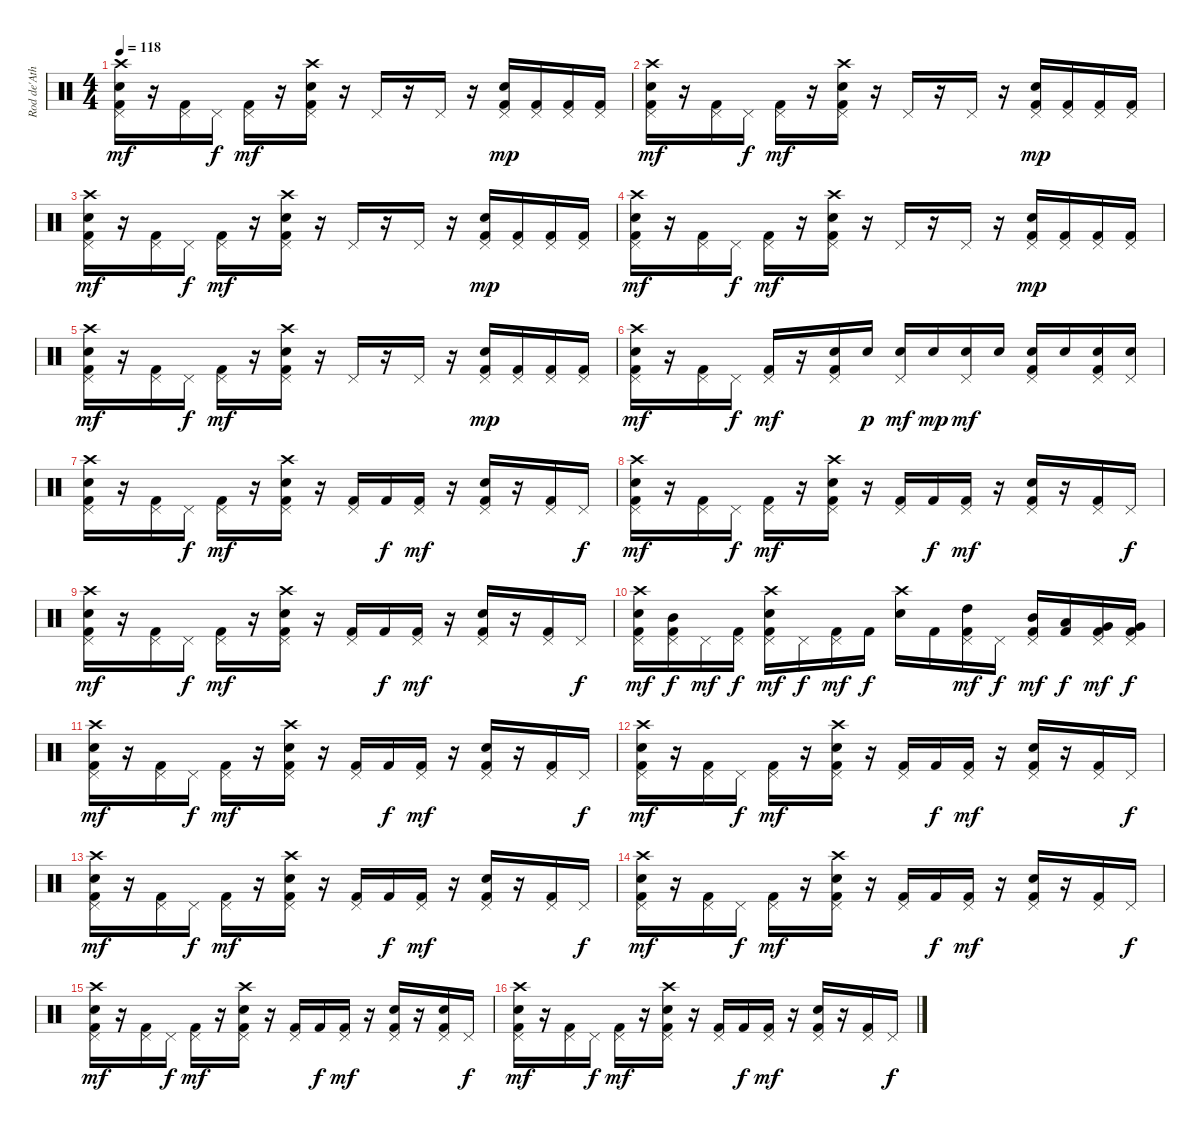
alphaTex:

\track ("Rod de'Ath" "Rod de'Ath") {instrument percussion}
\staff {score}
\articulation defaults
\ts (4 4)
\tempo 118
\clef neutral
\ks c
("Crash high (hit)" "Snare (hit) 2" "Pedal Hi-Hat (hit)" "Kick (hit) 2").16{dy mf} r.16 ("Pedal Hi-Hat (hit)" "Kick (hit) 2").16 "Pedal Hi-Hat (hit)".16{dy f} ("Pedal Hi-Hat (hit)" "Kick (hit) 2").16{dy mf} r.16 ("Crash high (hit)" "Snare (hit) 2" "Pedal Hi-Hat (hit)" "Kick (hit) 2").16 r.16 "Pedal Hi-Hat (hit)".16 r.16 "Pedal Hi-Hat (hit)".16 r.16 ("Snare (hit) 2" "Pedal Hi-Hat (hit)" "Kick (hit) 2").16{dy mp} ("Pedal Hi-Hat (hit)" "Kick (hit) 2").16 ("Pedal Hi-Hat (hit)" "Kick (hit) 2").16 ("Pedal Hi-Hat (hit)" "Kick (hit) 2").16 |
("Crash high (hit)" "Snare (hit) 2" "Pedal Hi-Hat (hit)" "Kick (hit) 2").16{dy mf} r.16 ("Pedal Hi-Hat (hit)" "Kick (hit) 2").16 "Pedal Hi-Hat (hit)".16{dy f} ("Pedal Hi-Hat (hit)" "Kick (hit) 2").16{dy mf} r.16 ("Crash high (hit)" "Snare (hit) 2" "Pedal Hi-Hat (hit)" "Kick (hit) 2").16 r.16 "Pedal Hi-Hat (hit)".16 r.16 "Pedal Hi-Hat (hit)".16 r.16 ("Snare (hit) 2" "Pedal Hi-Hat (hit)" "Kick (hit) 2").16{dy mp} ("Pedal Hi-Hat (hit)" "Kick (hit) 2").16 ("Pedal Hi-Hat (hit)" "Kick (hit) 2").16 ("Pedal Hi-Hat (hit)" "Kick (hit) 2").16 |
("Crash high (hit)" "Snare (hit) 2" "Pedal Hi-Hat (hit)" "Kick (hit) 2").16{dy mf} r.16 ("Pedal Hi-Hat (hit)" "Kick (hit) 2").16 "Pedal Hi-Hat (hit)".16{dy f} ("Pedal Hi-Hat (hit)" "Kick (hit) 2").16{dy mf} r.16 ("Crash high (hit)" "Snare (hit) 2" "Pedal Hi-Hat (hit)" "Kick (hit) 2").16 r.16 "Pedal Hi-Hat (hit)".16 r.16 "Pedal Hi-Hat (hit)".16 r.16 ("Snare (hit) 2" "Pedal Hi-Hat (hit)" "Kick (hit) 2").16{dy mp} ("Pedal Hi-Hat (hit)" "Kick (hit) 2").16 ("Pedal Hi-Hat (hit)" "Kick (hit) 2").16 ("Pedal Hi-Hat (hit)" "Kick (hit) 2").16 |
("Crash high (hit)" "Snare (hit) 2" "Pedal Hi-Hat (hit)" "Kick (hit) 2").16{dy mf} r.16 ("Pedal Hi-Hat (hit)" "Kick (hit) 2").16 "Pedal Hi-Hat (hit)".16{dy f} ("Pedal Hi-Hat (hit)" "Kick (hit) 2").16{dy mf} r.16 ("Crash high (hit)" "Snare (hit) 2" "Pedal Hi-Hat (hit)" "Kick (hit) 2").16 r.16 "Pedal Hi-Hat (hit)".16 r.16 "Pedal Hi-Hat (hit)".16 r.16 ("Snare (hit) 2" "Pedal Hi-Hat (hit)" "Kick (hit) 2").16{dy mp} ("Pedal Hi-Hat (hit)" "Kick (hit) 2").16 ("Pedal Hi-Hat (hit)" "Kick (hit) 2").16 ("Pedal Hi-Hat (hit)" "Kick (hit) 2").16 |
("Crash high (hit)" "Snare (hit) 2" "Pedal Hi-Hat (hit)" "Kick (hit) 2").16{dy mf} r.16 ("Pedal Hi-Hat (hit)" "Kick (hit) 2").16 "Pedal Hi-Hat (hit)".16{dy f} ("Pedal Hi-Hat (hit)" "Kick (hit) 2").16{dy mf} r.16 ("Crash high (hit)" "Snare (hit) 2" "Pedal Hi-Hat (hit)" "Kick (hit) 2").16 r.16 "Pedal Hi-Hat (hit)".16 r.16 "Pedal Hi-Hat (hit)".16 r.16 ("Snare (hit) 2" "Pedal Hi-Hat (hit)" "Kick (hit) 2").16{dy mp} ("Pedal Hi-Hat (hit)" "Kick (hit) 2").16 ("Pedal Hi-Hat (hit)" "Kick (hit) 2").16 ("Pedal Hi-Hat (hit)" "Kick (hit) 2").16 |
("Crash high (hit)" "Snare (hit) 2" "Pedal Hi-Hat (hit)" "Kick (hit) 2").16{dy mf} r.16 ("Pedal Hi-Hat (hit)" "Kick (hit) 2").16 "Pedal Hi-Hat (hit)".16{dy f} ("Pedal Hi-Hat (hit)" "Kick (hit) 2").16{dy mf} r.16 ("Electric Snare (hit)" "Pedal Hi-Hat (hit)" "Kick (hit) 2").16 "Electric Snare (hit)".16{dy p} ("Electric Snare (hit)" "Pedal Hi-Hat (hit)").16{dy mf} "Electric Snare (hit)".16{dy mp} ("Electric Snare (hit)" "Pedal Hi-Hat (hit)").16{dy mf} "Snare (hit) 2".16 ("Snare (hit) 2" "Pedal Hi-Hat (hit)" "Kick (hit) 2").16 "Snare (hit) 2".16 ("Snare (hit) 2" "Pedal Hi-Hat (hit)" "Kick (hit) 2").16 ("Snare (hit) 2" "Pedal Hi-Hat (hit)").16 |
("Crash high (hit)" "Snare (hit) 2" "Pedal Hi-Hat (hit)" "Kick (hit) 2").16 r.16 ("Pedal Hi-Hat (hit)" "Kick (hit) 2").16 "Pedal Hi-Hat (hit)".16{dy f} ("Pedal Hi-Hat (hit)" "Kick (hit) 2").16{dy mf} r.16 ("Crash high (hit)" "Snare (hit) 2" "Pedal Hi-Hat (hit)" "Kick (hit) 2").16 r.16 ("Pedal Hi-Hat (hit)" "Kick (hit) 2").16 "Kick (hit) 2".16{dy f} ("Pedal Hi-Hat (hit)" "Kick (hit) 2").16{dy mf} r.16 ("Snare (hit) 2" "Pedal Hi-Hat (hit)" "Kick (hit) 2").16 r.16 ("Pedal Hi-Hat (hit)" "Kick (hit) 2").16 "Pedal Hi-Hat (hit)".16{dy f} |
("Crash high (hit)" "Snare (hit) 2" "Pedal Hi-Hat (hit)" "Kick (hit) 2").16{dy mf} r.16 ("Pedal Hi-Hat (hit)" "Kick (hit) 2").16 "Pedal Hi-Hat (hit)".16{dy f} ("Pedal Hi-Hat (hit)" "Kick (hit) 2").16{dy mf} r.16 ("Crash high (hit)" "Snare (hit) 2" "Pedal Hi-Hat (hit)" "Kick (hit) 2").16 r.16 ("Pedal Hi-Hat (hit)" "Kick (hit) 2").16 "Kick (hit) 2".16{dy f} ("Pedal Hi-Hat (hit)" "Kick (hit) 2").16{dy mf} r.16 ("Snare (hit) 2" "Pedal Hi-Hat (hit)" "Kick (hit) 2").16 r.16 ("Pedal Hi-Hat (hit)" "Kick (hit) 2").16 "Pedal Hi-Hat (hit)".16{dy f} |
("Crash high (hit)" "Snare (hit) 2" "Pedal Hi-Hat (hit)" "Kick (hit) 2").16{dy mf} r.16 ("Pedal Hi-Hat (hit)" "Kick (hit) 2").16 "Pedal Hi-Hat (hit)".16{dy f} ("Pedal Hi-Hat (hit)" "Kick (hit) 2").16{dy mf} r.16 ("Crash high (hit)" "Snare (hit) 2" "Pedal Hi-Hat (hit)" "Kick (hit) 2").16 r.16 ("Pedal Hi-Hat (hit)" "Kick (hit) 2").16 "Kick (hit) 2".16{dy f} ("Pedal Hi-Hat (hit)" "Kick (hit) 2").16{dy mf} r.16 ("Snare (hit) 2" "Pedal Hi-Hat (hit)" "Kick (hit) 2").16 r.16 ("Pedal Hi-Hat (hit)" "Kick (hit) 2").16 "Pedal Hi-Hat (hit)".16{dy f} |
("Crash high (hit)" "Snare (hit) 2" "Pedal Hi-Hat (hit)" "Kick (hit) 2").16{dy mf} ("Mid Tom (hit)" "Pedal Hi-Hat (hit)" "Kick (hit) 2").16{dy f} "Pedal Hi-Hat (hit)".16{dy mf} ("Pedal Hi-Hat (hit)" "Kick (hit) 2").16{dy f} ("Crash high (hit)" "Snare (hit) 2" "Pedal Hi-Hat (hit)" "Kick (hit) 2").16{dy mf} "Pedal Hi-Hat (hit)".16{dy f} ("Pedal Hi-Hat (hit)" "Kick (hit) 2").16{dy mf} "Kick (hit) 2".16{dy f} ("Crash high (hit)" "Snare (hit) 2").16 "Kick (hit) 2".16 ("High Tom (hit)" "Pedal Hi-Hat (hit)" "Kick (hit) 2").16{dy mf} "Pedal Hi-Hat (hit)".16{dy f} ("Mid Tom (hit)" "Pedal Hi-Hat (hit)" "Kick (hit) 2").16{dy mf} ("Low Tom (hit)" "Kick (hit) 2").16{dy f} ("Very Low Tom (hit)" "Pedal Hi-Hat (hit)" "Kick (hit) 2").16{dy mf} ("Very Low Tom (hit)" "Pedal Hi-Hat (hit)" "Kick (hit) 2").16{dy f} |
("Crash high (hit)" "Snare (hit) 2" "Pedal Hi-Hat (hit)" "Kick (hit) 2").16{dy mf} r.16 ("Pedal Hi-Hat (hit)" "Kick (hit) 2").16 "Pedal Hi-Hat (hit)".16{dy f} ("Pedal Hi-Hat (hit)" "Kick (hit) 2").16{dy mf} r.16 ("Crash high (hit)" "Snare (hit) 2" "Pedal Hi-Hat (hit)" "Kick (hit) 2").16 r.16 ("Pedal Hi-Hat (hit)" "Kick (hit) 2").16 "Kick (hit) 2".16{dy f} ("Pedal Hi-Hat (hit)" "Kick (hit) 2").16{dy mf} r.16 ("Snare (hit) 2" "Pedal Hi-Hat (hit)" "Kick (hit) 2").16 r.16 ("Pedal Hi-Hat (hit)" "Kick (hit) 2").16 "Pedal Hi-Hat (hit)".16{dy f} |
("Crash high (hit)" "Snare (hit) 2" "Pedal Hi-Hat (hit)" "Kick (hit) 2").16{dy mf} r.16 ("Pedal Hi-Hat (hit)" "Kick (hit) 2").16 "Pedal Hi-Hat (hit)".16{dy f} ("Pedal Hi-Hat (hit)" "Kick (hit) 2").16{dy mf} r.16 ("Crash high (hit)" "Snare (hit) 2" "Pedal Hi-Hat (hit)" "Kick (hit) 2").16 r.16 ("Pedal Hi-Hat (hit)" "Kick (hit) 2").16 "Kick (hit) 2".16{dy f} ("Pedal Hi-Hat (hit)" "Kick (hit) 2").16{dy mf} r.16 ("Snare (hit) 2" "Pedal Hi-Hat (hit)" "Kick (hit) 2").16 r.16 ("Pedal Hi-Hat (hit)" "Kick (hit) 2").16 "Pedal Hi-Hat (hit)".16{dy f} |
("Crash high (hit)" "Snare (hit) 2" "Pedal Hi-Hat (hit)" "Kick (hit) 2").16{dy mf} r.16 ("Pedal Hi-Hat (hit)" "Kick (hit) 2").16 "Pedal Hi-Hat (hit)".16{dy f} ("Pedal Hi-Hat (hit)" "Kick (hit) 2").16{dy mf} r.16 ("Crash high (hit)" "Snare (hit) 2" "Pedal Hi-Hat (hit)" "Kick (hit) 2").16 r.16 ("Pedal Hi-Hat (hit)" "Kick (hit) 2").16 "Kick (hit) 2".16{dy f} ("Pedal Hi-Hat (hit)" "Kick (hit) 2").16{dy mf} r.16 ("Snare (hit) 2" "Pedal Hi-Hat (hit)" "Kick (hit) 2").16 r.16 ("Pedal Hi-Hat (hit)" "Kick (hit) 2").16 "Pedal Hi-Hat (hit)".16{dy f} |
("Crash high (hit)" "Snare (hit) 2" "Pedal Hi-Hat (hit)" "Kick (hit) 2").16{dy mf} r.16 ("Pedal Hi-Hat (hit)" "Kick (hit) 2").16 "Pedal Hi-Hat (hit)".16{dy f} ("Pedal Hi-Hat (hit)" "Kick (hit) 2").16{dy mf} r.16 ("Crash high (hit)" "Snare (hit) 2" "Pedal Hi-Hat (hit)" "Kick (hit) 2").16 r.16 ("Pedal Hi-Hat (hit)" "Kick (hit) 2").16 "Kick (hit) 2".16{dy f} ("Pedal Hi-Hat (hit)" "Kick (hit) 2").16{dy mf} r.16 ("Snare (hit) 2" "Pedal Hi-Hat (hit)" "Kick (hit) 2").16 r.16 ("Pedal Hi-Hat (hit)" "Kick (hit) 2").16 "Pedal Hi-Hat (hit)".16{dy f} |
("Crash high (hit)" "Snare (hit) 2" "Pedal Hi-Hat (hit)" "Kick (hit) 2").16{dy mf} r.16 ("Pedal Hi-Hat (hit)" "Kick (hit) 2").16 "Pedal Hi-Hat (hit)".16{dy f} ("Pedal Hi-Hat (hit)" "Kick (hit) 2").16{dy mf} r.16 ("Crash high (hit)" "Snare (hit) 2" "Pedal Hi-Hat (hit)" "Kick (hit) 2").16 r.16 ("Pedal Hi-Hat (hit)" "Kick (hit) 2").16 "Kick (hit) 2".16{dy f} ("Pedal Hi-Hat (hit)" "Kick (hit) 2").16{dy mf} r.16 ("Snare (hit) 2" "Pedal Hi-Hat (hit)" "Kick (hit) 2").16 r.16 ("Snare (hit) 2" "Pedal Hi-Hat (hit)" "Kick (hit) 2").16 "Pedal Hi-Hat (hit)".16{dy f} |
("Crash high (hit)" "Snare (hit) 2" "Pedal Hi-Hat (hit)" "Kick (hit) 2").16{dy mf} r.16 ("Pedal Hi-Hat (hit)" "Kick (hit) 2").16 "Pedal Hi-Hat (hit)".16{dy f} ("Pedal Hi-Hat (hit)" "Kick (hit) 2").16{dy mf} r.16 ("Crash high (hit)" "Snare (hit) 2" "Pedal Hi-Hat (hit)" "Kick (hit) 2").16 r.16 ("Pedal Hi-Hat (hit)" "Kick (hit) 2").16 "Kick (hit) 2".16{dy f} ("Pedal Hi-Hat (hit)" "Kick (hit) 2").16{dy mf} r.16 ("Snare (hit) 2" "Pedal Hi-Hat (hit)" "Kick (hit) 2").16 r.16 ("Pedal Hi-Hat (hit)" "Kick (hit) 2").16 "Pedal Hi-Hat (hit)".16{dy f}
